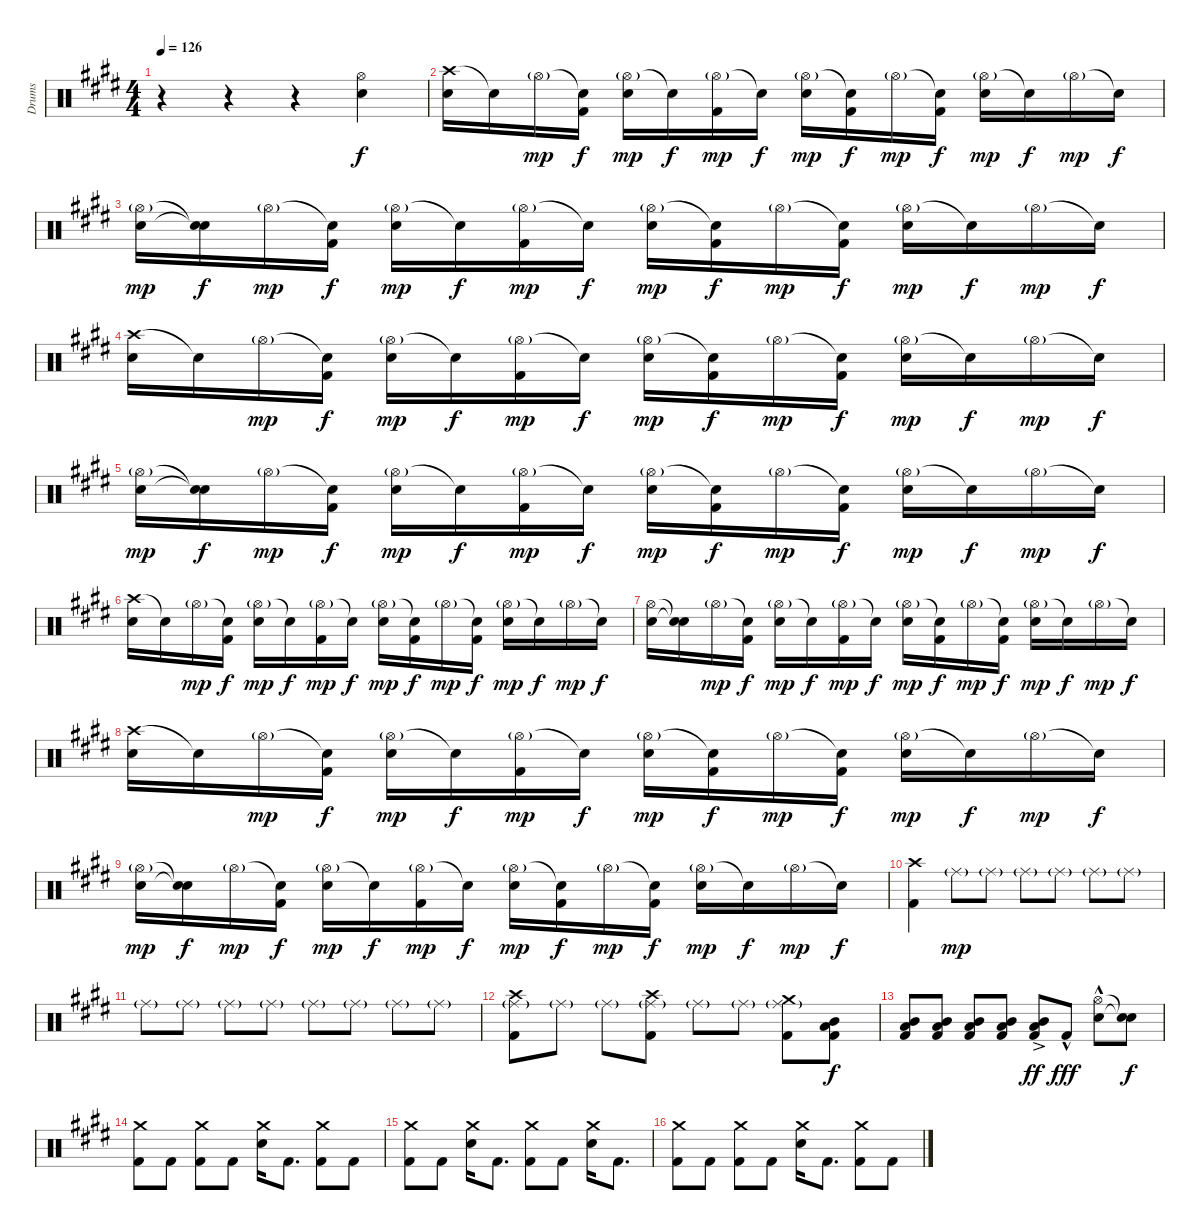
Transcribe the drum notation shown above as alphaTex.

\track ("Drums" "Drums") {instrument percussion}
\staff {score}
\articulation defaults
\ts (4 4)
\tempo 126
\clef neutral
\ks e
r.4{dy f} r.4 r.4 ("Hi-Hat (open)" "Snare (hit) 2").4 |
("Crash high (hit)" "Snare (hit) 2").16 "Snare (hit)"{t}.16 "Hi-Hat (open)"{g}.16{dy mp} ("Snare (hit)"{t} "Kick (hit) 2").16{dy f} ("Hi-Hat (open)"{g} "Snare (hit) 2").16{dy mp} "Snare (hit)"{t}.16{dy f} ("Hi-Hat (open)"{g} "Kick (hit) 2").16{dy mp} "Snare (hit)"{t}.16{dy f} ("Hi-Hat (open)"{g} "Snare (hit) 2").16{dy mp} ("Snare (hit)"{t} "Kick (hit) 2").16{dy f} "Hi-Hat (open)"{g}.16{dy mp} ("Snare (hit)"{t} "Kick (hit) 2").16{dy f} ("Hi-Hat (open)"{g} "Snare (hit) 2").16{dy mp} "Snare (hit)"{t}.16{dy f} "Hi-Hat (open)"{g}.16{dy mp} "Snare (hit)"{t}.16{dy f} |
("Hi-Hat (open)"{g} "Snare (hit) 2").16{dy mp} ("Snare (hit)"{t} "Snare (hit)"{t}).16{dy f} "Hi-Hat (open)"{g}.16{dy mp} ("Snare (hit)"{t} "Kick (hit) 2").16{dy f} ("Hi-Hat (open)"{g} "Snare (hit) 2").16{dy mp} "Snare (hit)"{t}.16{dy f} ("Hi-Hat (open)"{g} "Kick (hit) 2").16{dy mp} "Snare (hit)"{t}.16{dy f} ("Hi-Hat (open)"{g} "Snare (hit) 2").16{dy mp} ("Snare (hit)"{t} "Kick (hit) 2").16{dy f} "Hi-Hat (open)"{g}.16{dy mp} ("Snare (hit)"{t} "Kick (hit) 2").16{dy f} ("Hi-Hat (open)"{g} "Snare (hit) 2").16{dy mp} "Snare (hit)"{t}.16{dy f} "Hi-Hat (open)"{g}.16{dy mp} "Snare (hit)"{t}.16{dy f} |
("Crash high (hit)" "Snare (hit) 2").16 "Snare (hit)"{t}.16 "Hi-Hat (open)"{g}.16{dy mp} ("Snare (hit)"{t} "Kick (hit) 2").16{dy f} ("Hi-Hat (open)"{g} "Snare (hit) 2").16{dy mp} "Snare (hit)"{t}.16{dy f} ("Hi-Hat (open)"{g} "Kick (hit) 2").16{dy mp} "Snare (hit)"{t}.16{dy f} ("Hi-Hat (open)"{g} "Snare (hit) 2").16{dy mp} ("Snare (hit)"{t} "Kick (hit) 2").16{dy f} "Hi-Hat (open)"{g}.16{dy mp} ("Snare (hit)"{t} "Kick (hit) 2").16{dy f} ("Hi-Hat (open)"{g} "Snare (hit) 2").16{dy mp} "Snare (hit)"{t}.16{dy f} "Hi-Hat (open)"{g}.16{dy mp} "Snare (hit)"{t}.16{dy f} |
("Hi-Hat (open)"{g} "Snare (hit) 2").16{dy mp} ("Snare (hit)"{t} "Snare (hit)"{t}).16{dy f} "Hi-Hat (open)"{g}.16{dy mp} ("Snare (hit)"{t} "Kick (hit) 2").16{dy f} ("Hi-Hat (open)"{g} "Snare (hit) 2").16{dy mp} "Snare (hit)"{t}.16{dy f} ("Hi-Hat (open)"{g} "Kick (hit) 2").16{dy mp} "Snare (hit)"{t}.16{dy f} ("Hi-Hat (open)"{g} "Snare (hit) 2").16{dy mp} ("Snare (hit)"{t} "Kick (hit) 2").16{dy f} "Hi-Hat (open)"{g}.16{dy mp} ("Snare (hit)"{t} "Kick (hit) 2").16{dy f} ("Hi-Hat (open)"{g} "Snare (hit) 2").16{dy mp} "Snare (hit)"{t}.16{dy f} "Hi-Hat (open)"{g}.16{dy mp} "Snare (hit)"{t}.16{dy f} |
("Crash high (hit)" "Snare (hit) 2").16 "Snare (hit)"{t}.16 "Hi-Hat (open)"{g}.16{dy mp} ("Snare (hit)"{t} "Kick (hit) 2").16{dy f} ("Hi-Hat (open)"{g} "Snare (hit) 2").16{dy mp} "Snare (hit)"{t}.16{dy f} ("Hi-Hat (open)"{g} "Kick (hit) 2").16{dy mp} "Snare (hit)"{t}.16{dy f} ("Hi-Hat (open)"{g} "Snare (hit) 2").16{dy mp} ("Snare (hit)"{t} "Kick (hit) 2").16{dy f} "Hi-Hat (open)"{g}.16{dy mp} ("Snare (hit)"{t} "Kick (hit) 2").16{dy f} ("Hi-Hat (open)"{g} "Snare (hit) 2").16{dy mp} "Snare (hit)"{t}.16{dy f} "Hi-Hat (open)"{g}.16{dy mp} "Snare (hit)"{t}.16{dy f} |
("Hi-Hat (open)" "Snare (hit) 2").16 ("Snare (hit)"{t} "Snare (hit)"{t}).16 "Hi-Hat (open)"{g}.16{dy mp} ("Snare (hit)"{t} "Kick (hit) 2").16{dy f} ("Hi-Hat (open)"{g} "Snare (hit) 2").16{dy mp} "Snare (hit)"{t}.16{dy f} ("Hi-Hat (open)"{g} "Kick (hit) 2").16{dy mp} "Snare (hit)"{t}.16{dy f} ("Hi-Hat (open)"{g} "Snare (hit) 2").16{dy mp} ("Snare (hit)"{t} "Kick (hit) 2").16{dy f} "Hi-Hat (open)"{g}.16{dy mp} ("Snare (hit)"{t} "Kick (hit) 2").16{dy f} ("Hi-Hat (open)"{g} "Snare (hit) 2").16{dy mp} "Snare (hit)"{t}.16{dy f} "Hi-Hat (open)"{g}.16{dy mp} "Snare (hit)"{t}.16{dy f} |
("Crash high (hit)" "Snare (hit) 2").16 "Snare (hit)"{t}.16 "Hi-Hat (open)"{g}.16{dy mp} ("Snare (hit)"{t} "Kick (hit) 2").16{dy f} ("Hi-Hat (open)"{g} "Snare (hit) 2").16{dy mp} "Snare (hit)"{t}.16{dy f} ("Hi-Hat (open)"{g} "Kick (hit) 2").16{dy mp} "Snare (hit)"{t}.16{dy f} ("Hi-Hat (open)"{g} "Snare (hit) 2").16{dy mp} ("Snare (hit)"{t} "Kick (hit) 2").16{dy f} "Hi-Hat (open)"{g}.16{dy mp} ("Snare (hit)"{t} "Kick (hit) 2").16{dy f} ("Hi-Hat (open)"{g} "Snare (hit) 2").16{dy mp} "Snare (hit)"{t}.16{dy f} "Hi-Hat (open)"{g}.16{dy mp} "Snare (hit)"{t}.16{dy f} |
("Hi-Hat (open)"{g} "Snare (hit) 2").16{dy mp} ("Snare (hit)"{t} "Snare (hit)"{t}).16{dy f} "Hi-Hat (open)"{g}.16{dy mp} ("Snare (hit)"{t} "Kick (hit) 2").16{dy f} ("Hi-Hat (open)"{g} "Snare (hit) 2").16{dy mp} "Snare (hit)"{t}.16{dy f} ("Hi-Hat (open)"{g} "Kick (hit) 2").16{dy mp} "Snare (hit)"{t}.16{dy f} ("Hi-Hat (open)"{g} "Snare (hit) 2").16{dy mp} ("Snare (hit)"{t} "Kick (hit) 2").16{dy f} "Hi-Hat (open)"{g}.16{dy mp} ("Snare (hit)"{t} "Kick (hit) 2").16{dy f} ("Hi-Hat (open)"{g} "Snare (hit) 2").16{dy mp} "Snare (hit)"{t}.16{dy f} "Hi-Hat (open)"{g}.16{dy mp} "Snare (hit)"{t}.16{dy f} |
("Crash high (hit)" "Kick (hit) 2").4 "Ride (middle)"{g}.8{dy mp} "Ride (middle)"{g}.8 "Ride (middle)"{g}.8 "Ride (middle)"{g}.8 "Ride (middle)"{g}.8 "Ride (middle)"{g}.8 |
"Ride (middle)"{g}.8 "Ride (middle)"{g}.8 "Ride (middle)"{g}.8 "Ride (middle)"{g}.8 "Ride (middle)"{g}.8 "Ride (middle)"{g}.8 "Ride (middle)"{g}.8 "Ride (middle)"{g}.8 |
("Crash high (hit)" "Kick (hit) 2" "Ride (middle)"{g}).8 "Ride (middle)"{g}.8 "Ride (middle)"{g}.8 ("Crash high (hit)" "Kick (hit) 2" "Ride (middle)"{g}).8 "Ride (middle)"{g}.8 "Ride (middle)"{g}.8 ("Crash medium (hit)" "Kick (hit) 2" "Ride (middle)"{g}).8 ("Mid Tom (hit)" "Low Floor Tom (hit)" "Kick (hit) 2").8{dy f} |
("Mid Tom (hit)" "Low Floor Tom (hit)" "Kick (hit) 2").8 ("Mid Tom (hit)" "Low Floor Tom (hit)" "Kick (hit) 2").8 ("Mid Tom (hit)" "Low Floor Tom (hit)" "Kick (hit) 2").8 ("Mid Tom (hit)" "Low Floor Tom (hit)" "Kick (hit) 2").8 ("Mid Tom (hit)"{ac} "Low Floor Tom (hit)"{ac} "Kick (hit) 2"{ac}).8{dy ff} "Kick (hit) 2"{hac}.8{dy fff} ("Hi-Hat (open)" "Snare (hit) 2"{hac}).8 ("Snare (hit)"{t} "Snare (hit)"{t}).8{dy f} |
("Crash medium (hit)" "Kick (hit) 2").8 "Kick (hit) 2".8 ("Crash medium (hit)" "Kick (hit) 2").8 "Kick (hit) 2".8 ("Crash medium (hit)" "Snare (hit) 2").16 "Kick (hit) 2".8{d} ("Crash medium (hit)" "Kick (hit) 2").8 "Kick (hit) 2".8 |
("Crash medium (hit)" "Kick (hit) 2").8 "Kick (hit) 2".8 ("Crash medium (hit)" "Snare (hit) 2").16 "Kick (hit) 2".8{d} ("Crash medium (hit)" "Kick (hit) 2").8 "Kick (hit) 2".8 ("Crash medium (hit)" "Snare (hit) 2").16 "Kick (hit) 2".8{d} |
("Crash medium (hit)" "Kick (hit) 2").8 "Kick (hit) 2".8 ("Crash medium (hit)" "Kick (hit) 2").8 "Kick (hit) 2".8 ("Crash medium (hit)" "Snare (hit) 2").16 "Kick (hit) 2".8{d} ("Crash medium (hit)" "Kick (hit) 2").8 "Kick (hit) 2".8
